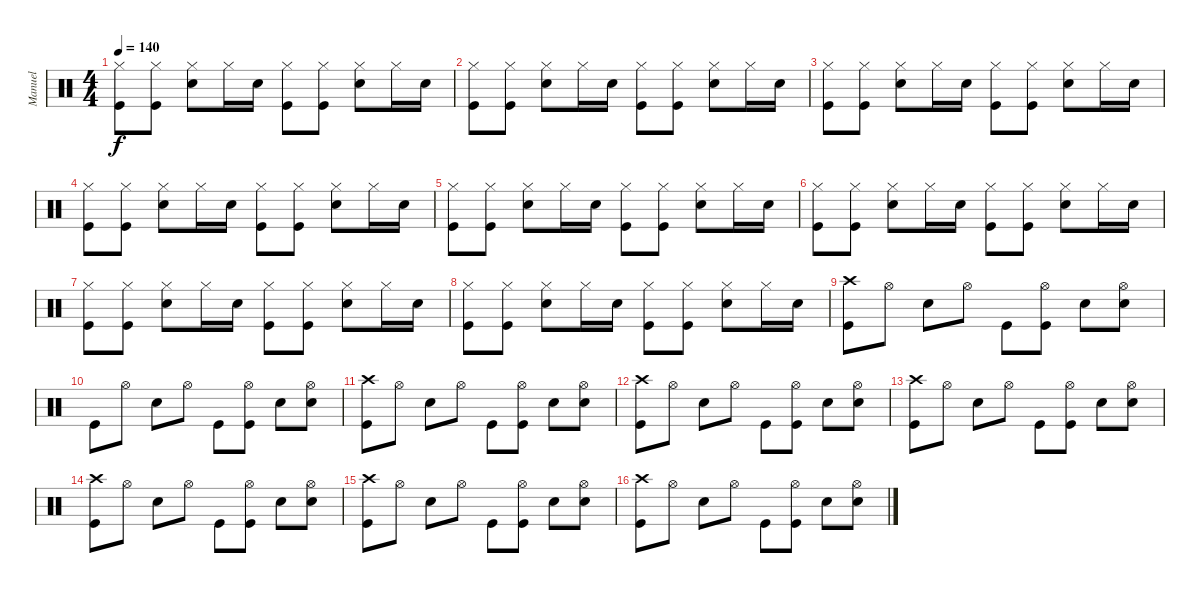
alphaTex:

\track ("Manuel" "Manuel") {instrument percussion}
\staff {score}
\articulation defaults
\ts (4 4)
\tempo 140
\clef neutral
\ks c
("Hi-Hat (closed)" "Kick (hit)").8{dy f} ("Hi-Hat (closed)" "Kick (hit)").8 ("Hi-Hat (closed)" "Snare (hit) 2").8 "Hi-Hat (closed)".16 "Snare (hit) 2".16 ("Hi-Hat (closed)" "Kick (hit)").8 ("Hi-Hat (closed)" "Kick (hit)").8 ("Hi-Hat (closed)" "Snare (hit) 2").8 "Hi-Hat (closed)".16 "Snare (hit) 2".16 |
("Hi-Hat (closed)" "Kick (hit)").8 ("Hi-Hat (closed)" "Kick (hit)").8 ("Hi-Hat (closed)" "Snare (hit) 2").8 "Hi-Hat (closed)".16 "Snare (hit) 2".16 ("Hi-Hat (closed)" "Kick (hit)").8 ("Hi-Hat (closed)" "Kick (hit)").8 ("Hi-Hat (closed)" "Snare (hit) 2").8 "Hi-Hat (closed)".16 "Snare (hit) 2".16 |
("Hi-Hat (closed)" "Kick (hit)").8 ("Hi-Hat (closed)" "Kick (hit)").8 ("Hi-Hat (closed)" "Snare (hit) 2").8 "Hi-Hat (closed)".16 "Snare (hit) 2".16 ("Hi-Hat (closed)" "Kick (hit)").8 ("Hi-Hat (closed)" "Kick (hit)").8 ("Hi-Hat (closed)" "Snare (hit) 2").8 "Hi-Hat (closed)".16 "Snare (hit) 2".16 |
("Hi-Hat (closed)" "Kick (hit)").8 ("Hi-Hat (closed)" "Kick (hit)").8 ("Hi-Hat (closed)" "Snare (hit) 2").8 "Hi-Hat (closed)".16 "Snare (hit) 2".16 ("Hi-Hat (closed)" "Kick (hit)").8 ("Hi-Hat (closed)" "Kick (hit)").8 ("Hi-Hat (closed)" "Snare (hit) 2").8 "Hi-Hat (closed)".16 "Snare (hit) 2".16 |
("Hi-Hat (closed)" "Kick (hit)").8 ("Hi-Hat (closed)" "Kick (hit)").8 ("Hi-Hat (closed)" "Snare (hit) 2").8 "Hi-Hat (closed)".16 "Snare (hit) 2".16 ("Hi-Hat (closed)" "Kick (hit)").8 ("Hi-Hat (closed)" "Kick (hit)").8 ("Hi-Hat (closed)" "Snare (hit) 2").8 "Hi-Hat (closed)".16 "Snare (hit) 2".16 |
("Hi-Hat (closed)" "Kick (hit)").8 ("Hi-Hat (closed)" "Kick (hit)").8 ("Hi-Hat (closed)" "Snare (hit) 2").8 "Hi-Hat (closed)".16 "Snare (hit) 2".16 ("Hi-Hat (closed)" "Kick (hit)").8 ("Hi-Hat (closed)" "Kick (hit)").8 ("Hi-Hat (closed)" "Snare (hit) 2").8 "Hi-Hat (closed)".16 "Snare (hit) 2".16 |
("Hi-Hat (closed)" "Kick (hit)").8 ("Hi-Hat (closed)" "Kick (hit)").8 ("Hi-Hat (closed)" "Snare (hit) 2").8 "Hi-Hat (closed)".16 "Snare (hit) 2".16 ("Hi-Hat (closed)" "Kick (hit)").8 ("Hi-Hat (closed)" "Kick (hit)").8 ("Hi-Hat (closed)" "Snare (hit) 2").8 "Hi-Hat (closed)".16 "Snare (hit) 2".16 |
("Hi-Hat (closed)" "Kick (hit)").8 ("Hi-Hat (closed)" "Kick (hit)").8 ("Hi-Hat (closed)" "Snare (hit) 2").8 "Hi-Hat (closed)".16 "Snare (hit) 2".16 ("Hi-Hat (closed)" "Kick (hit)").8 ("Hi-Hat (closed)" "Kick (hit)").8 ("Hi-Hat (closed)" "Snare (hit) 2").8 "Hi-Hat (closed)".16 "Snare (hit) 2".16 |
("Crash high (hit)" "Kick (hit)").8 "Hi-Hat (open)".8 "Electric Snare (hit)".8 "Hi-Hat (open)".8 "Kick (hit)".8 ("Kick (hit)" "Hi-Hat (open)").8 "Electric Snare (hit)".8 ("Electric Snare (hit)" "Hi-Hat (open)").8 |
"Kick (hit)".8 "Hi-Hat (open)".8 "Electric Snare (hit)".8 "Hi-Hat (open)".8 "Kick (hit)".8 ("Kick (hit)" "Hi-Hat (open)").8 "Electric Snare (hit)".8 ("Electric Snare (hit)" "Hi-Hat (open)").8 |
("Crash high (hit)" "Kick (hit)").8 "Hi-Hat (open)".8 "Electric Snare (hit)".8 "Hi-Hat (open)".8 "Kick (hit)".8 ("Kick (hit)" "Hi-Hat (open)").8 "Electric Snare (hit)".8 ("Electric Snare (hit)" "Hi-Hat (open)").8 |
("Crash high (hit)" "Kick (hit)").8 "Hi-Hat (open)".8 "Electric Snare (hit)".8 "Hi-Hat (open)".8 "Kick (hit)".8 ("Kick (hit)" "Hi-Hat (open)").8 "Electric Snare (hit)".8 ("Electric Snare (hit)" "Hi-Hat (open)").8 |
("Crash high (hit)" "Kick (hit)").8 "Hi-Hat (open)".8 "Electric Snare (hit)".8 "Hi-Hat (open)".8 "Kick (hit)".8 ("Kick (hit)" "Hi-Hat (open)").8 "Electric Snare (hit)".8 ("Electric Snare (hit)" "Hi-Hat (open)").8 |
("Crash high (hit)" "Kick (hit)").8 "Hi-Hat (open)".8 "Electric Snare (hit)".8 "Hi-Hat (open)".8 "Kick (hit)".8 ("Kick (hit)" "Hi-Hat (open)").8 "Electric Snare (hit)".8 ("Electric Snare (hit)" "Hi-Hat (open)").8 |
("Crash high (hit)" "Kick (hit)").8 "Hi-Hat (open)".8 "Electric Snare (hit)".8 "Hi-Hat (open)".8 "Kick (hit)".8 ("Kick (hit)" "Hi-Hat (open)").8 "Electric Snare (hit)".8 ("Electric Snare (hit)" "Hi-Hat (open)").8 |
("Crash high (hit)" "Kick (hit)").8 "Hi-Hat (open)".8 "Electric Snare (hit)".8 "Hi-Hat (open)".8 "Kick (hit)".8 ("Kick (hit)" "Hi-Hat (open)").8 "Electric Snare (hit)".8 ("Electric Snare (hit)" "Hi-Hat (open)").8
